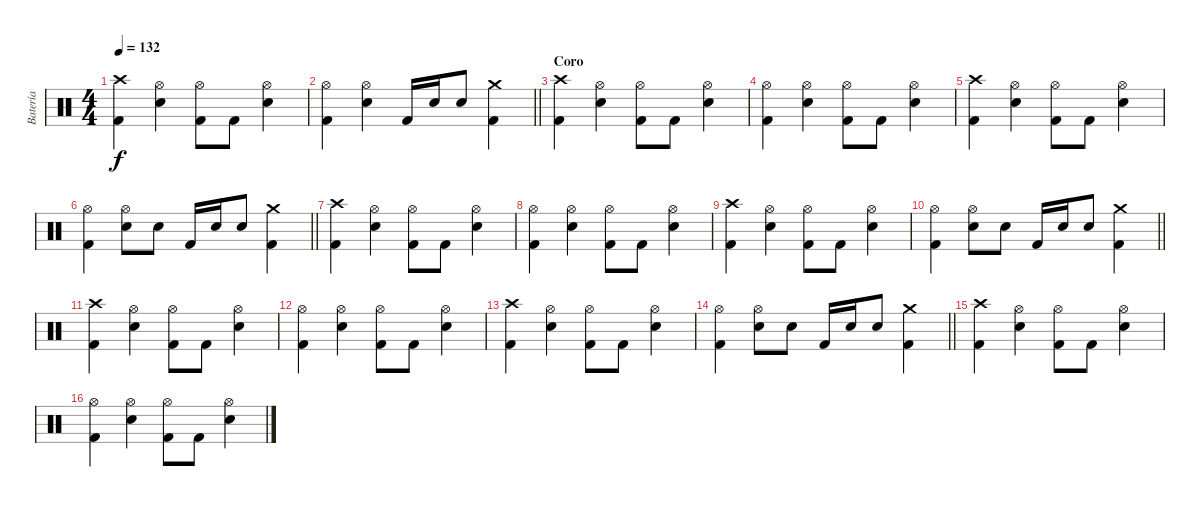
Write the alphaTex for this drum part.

\track ("Batería" "Batería") {instrument percussion}
\staff {score}
\articulation defaults
\ts (4 4)
\tempo 132
\clef neutral
\ks c
("Crash high (hit)" "Kick (hit) 2").4{dy f} ("Hi-Hat (open)" "Electric Snare (hit)").4 ("Kick (hit) 2" "Hi-Hat (open)").8 "Kick (hit) 2".8 ("Hi-Hat (open)" "Electric Snare (hit)").4 |
\barLineRight lightlight
("Hi-Hat (open)" "Kick (hit) 2").4 ("Hi-Hat (open)" "Electric Snare (hit)").4 "Kick (hit) 2".16 "Electric Snare (hit)".16 "Electric Snare (hit)".8 ("Kick (hit) 2" "Crash medium (hit)").4 |
\section ("" "Coro")
("Crash high (hit)" "Kick (hit) 2").4 ("Hi-Hat (open)" "Electric Snare (hit)").4 ("Kick (hit) 2" "Hi-Hat (open)").8 "Kick (hit) 2".8 ("Hi-Hat (open)" "Electric Snare (hit)").4 |
("Hi-Hat (open)" "Kick (hit) 2").4 ("Hi-Hat (open)" "Electric Snare (hit)").4 ("Kick (hit) 2" "Hi-Hat (open)").8 "Kick (hit) 2".8 ("Hi-Hat (open)" "Electric Snare (hit)").4 |
("Crash high (hit)" "Kick (hit) 2").4 ("Hi-Hat (open)" "Electric Snare (hit)").4 ("Kick (hit) 2" "Hi-Hat (open)").8 "Kick (hit) 2".8 ("Hi-Hat (open)" "Electric Snare (hit)").4 |
\barLineRight lightlight
("Hi-Hat (open)" "Kick (hit) 2").4 ("Hi-Hat (open)" "Electric Snare (hit)").8 "Electric Snare (hit)".8 "Kick (hit) 2".16 "Electric Snare (hit)".16 "Electric Snare (hit)".8 ("Kick (hit) 2" "Crash medium (hit)").4 |
("Crash high (hit)" "Kick (hit) 2").4 ("Hi-Hat (open)" "Electric Snare (hit)").4 ("Kick (hit) 2" "Hi-Hat (open)").8 "Kick (hit) 2".8 ("Hi-Hat (open)" "Electric Snare (hit)").4 |
("Hi-Hat (open)" "Kick (hit) 2").4 ("Hi-Hat (open)" "Electric Snare (hit)").4 ("Kick (hit) 2" "Hi-Hat (open)").8 "Kick (hit) 2".8 ("Hi-Hat (open)" "Electric Snare (hit)").4 |
("Crash high (hit)" "Kick (hit) 2").4 ("Hi-Hat (open)" "Electric Snare (hit)").4 ("Kick (hit) 2" "Hi-Hat (open)").8 "Kick (hit) 2".8 ("Hi-Hat (open)" "Electric Snare (hit)").4 |
\barLineRight lightlight
("Hi-Hat (open)" "Kick (hit) 2").4 ("Hi-Hat (open)" "Electric Snare (hit)").8 "Electric Snare (hit)".8 "Kick (hit) 2".16 "Electric Snare (hit)".16 "Electric Snare (hit)".8 ("Kick (hit) 2" "Crash medium (hit)").4 |
("Crash high (hit)" "Kick (hit) 2").4 ("Hi-Hat (open)" "Electric Snare (hit)").4 ("Kick (hit) 2" "Hi-Hat (open)").8 "Kick (hit) 2".8 ("Hi-Hat (open)" "Electric Snare (hit)").4 |
("Hi-Hat (open)" "Kick (hit) 2").4 ("Hi-Hat (open)" "Electric Snare (hit)").4 ("Kick (hit) 2" "Hi-Hat (open)").8 "Kick (hit) 2".8 ("Hi-Hat (open)" "Electric Snare (hit)").4 |
("Crash high (hit)" "Kick (hit) 2").4 ("Hi-Hat (open)" "Electric Snare (hit)").4 ("Kick (hit) 2" "Hi-Hat (open)").8 "Kick (hit) 2".8 ("Hi-Hat (open)" "Electric Snare (hit)").4 |
\barLineRight lightlight
("Hi-Hat (open)" "Kick (hit) 2").4 ("Hi-Hat (open)" "Electric Snare (hit)").8 "Electric Snare (hit)".8 "Kick (hit) 2".16 "Electric Snare (hit)".16 "Electric Snare (hit)".8 ("Kick (hit) 2" "Crash medium (hit)").4 |
("Crash high (hit)" "Kick (hit) 2").4 ("Hi-Hat (open)" "Electric Snare (hit)").4 ("Kick (hit) 2" "Hi-Hat (open)").8 "Kick (hit) 2".8 ("Hi-Hat (open)" "Electric Snare (hit)").4 |
("Hi-Hat (open)" "Kick (hit) 2").4 ("Hi-Hat (open)" "Electric Snare (hit)").4 ("Kick (hit) 2" "Hi-Hat (open)").8 "Kick (hit) 2".8 ("Hi-Hat (open)" "Electric Snare (hit)").4
